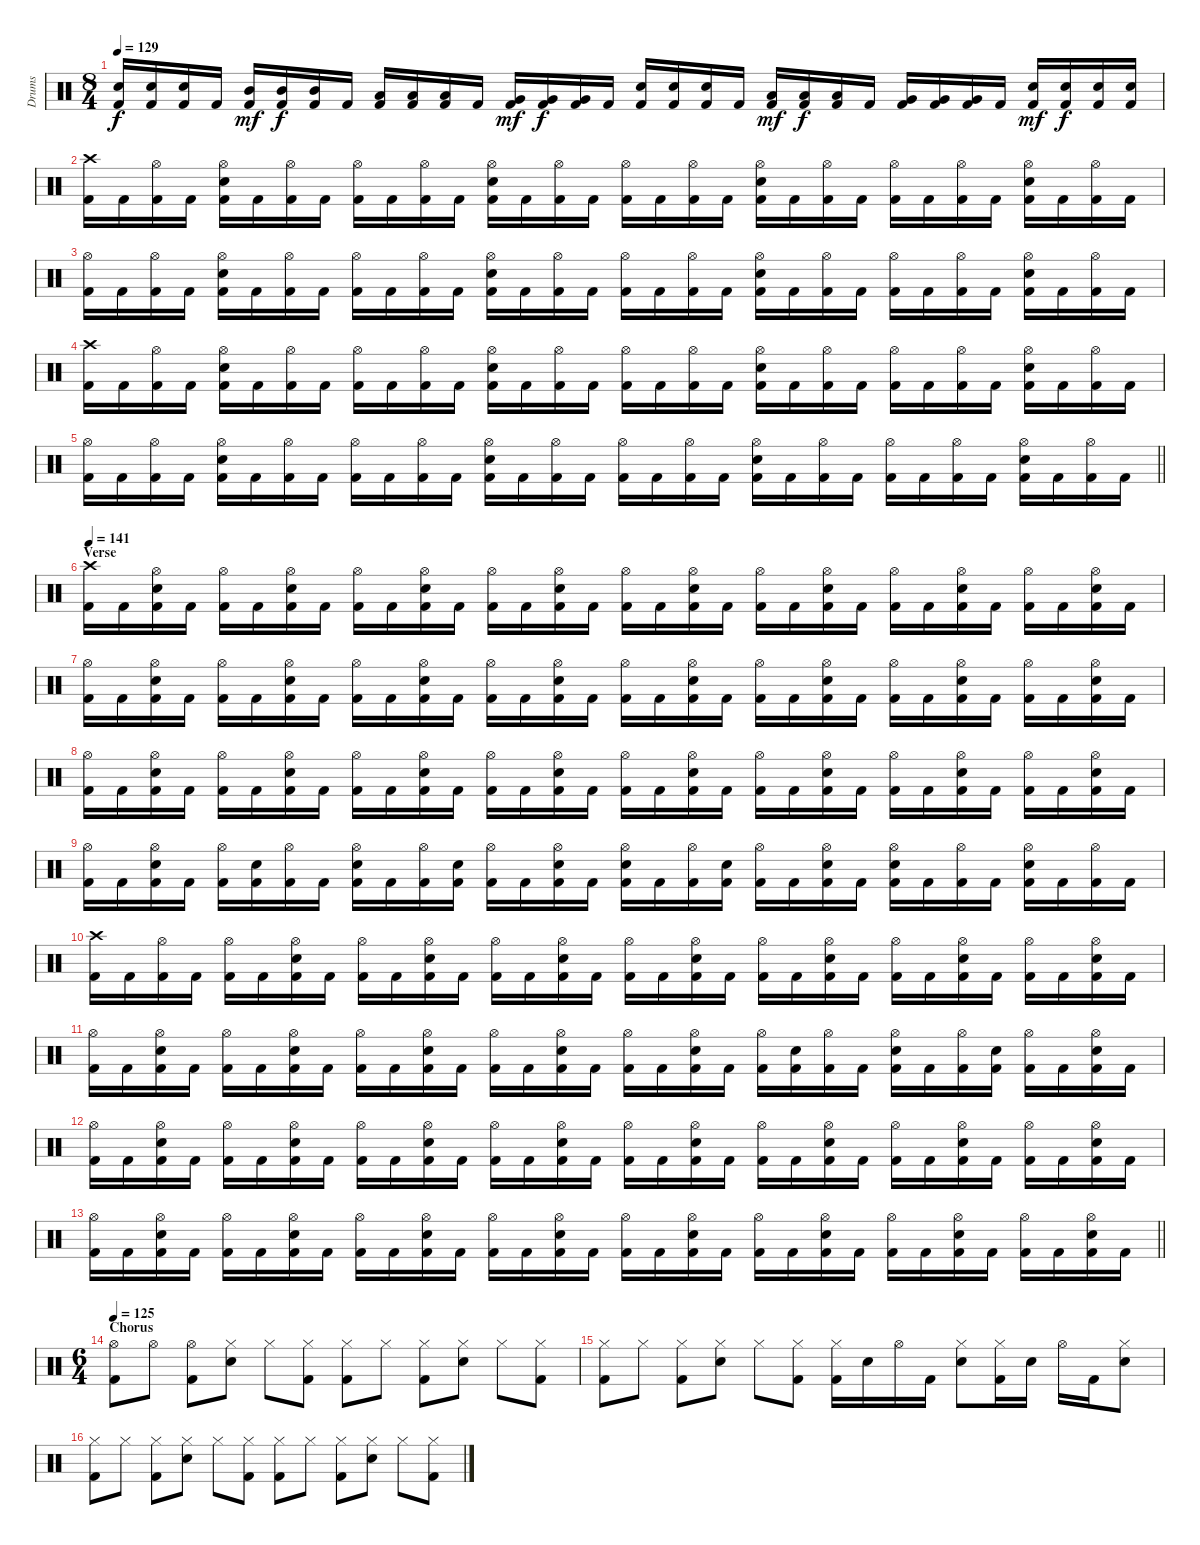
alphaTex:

\track ("Drums" "Drums") {instrument percussion}
\staff {score}
\articulation defaults
\ts (8 4)
\tempo 129
\clef neutral
\ks c
("Snare (hit) 2" "Kick (hit) 2").16{dy f} ("Snare (hit) 2" "Kick (hit) 2").16 ("Snare (hit) 2" "Kick (hit) 2").16 "Kick (hit) 2".16 ("Mid Tom (hit)" "Kick (hit) 2").16{dy mf} ("Mid Tom (hit)" "Kick (hit) 2").16{dy f} ("Mid Tom (hit)" "Kick (hit) 2").16 "Kick (hit) 2".16 ("Low Tom (hit)" "Kick (hit) 2").16 ("Low Tom (hit)" "Kick (hit) 2").16 ("Low Tom (hit)" "Kick (hit) 2").16 "Kick (hit) 2".16 ("Very Low Tom (hit)" "Kick (hit) 2").16{dy mf} ("Very Low Tom (hit)" "Kick (hit) 2").16{dy f} ("Very Low Tom (hit)" "Kick (hit) 2").16 "Kick (hit) 2".16 ("Snare (hit) 2" "Kick (hit) 2").16 ("Snare (hit) 2" "Kick (hit) 2").16 ("Snare (hit) 2" "Kick (hit) 2").16 "Kick (hit) 2".16 ("Low Tom (hit)" "Kick (hit) 2").16{dy mf} ("Low Tom (hit)" "Kick (hit) 2").16{dy f} ("Low Tom (hit)" "Kick (hit) 2").16 "Kick (hit) 2".16 ("Very Low Tom (hit)" "Kick (hit) 2").16 ("Very Low Tom (hit)" "Kick (hit) 2").16 ("Very Low Tom (hit)" "Kick (hit) 2").16 "Kick (hit) 2".16 ("Snare (hit) 2" "Kick (hit) 2").16{dy mf} ("Snare (hit) 2" "Kick (hit) 2").16{dy f} ("Snare (hit) 2" "Kick (hit) 2").16 ("Snare (hit) 2" "Kick (hit) 2").16 |
("Crash high (hit)" "Kick (hit) 2").16 "Kick (hit) 2".16 ("Hi-Hat (open)" "Kick (hit) 2").16 "Kick (hit) 2".16 ("Hi-Hat (open)" "Snare (hit) 2" "Kick (hit) 2").16 "Kick (hit) 2".16 ("Hi-Hat (open)" "Kick (hit) 2").16 "Kick (hit) 2".16 ("Hi-Hat (open)" "Kick (hit) 2").16 "Kick (hit) 2".16 ("Hi-Hat (open)" "Kick (hit) 2").16 "Kick (hit) 2".16 ("Hi-Hat (open)" "Snare (hit) 2" "Kick (hit) 2").16 "Kick (hit) 2".16 ("Hi-Hat (open)" "Kick (hit) 2").16 "Kick (hit) 2".16 ("Hi-Hat (open)" "Kick (hit) 2").16 "Kick (hit) 2".16 ("Hi-Hat (open)" "Kick (hit) 2").16 "Kick (hit) 2".16 ("Hi-Hat (open)" "Snare (hit) 2" "Kick (hit) 2").16 "Kick (hit) 2".16 ("Hi-Hat (open)" "Kick (hit) 2").16 "Kick (hit) 2".16 ("Hi-Hat (open)" "Kick (hit) 2").16 "Kick (hit) 2".16 ("Hi-Hat (open)" "Kick (hit) 2").16 "Kick (hit) 2".16 ("Hi-Hat (open)" "Snare (hit) 2" "Kick (hit) 2").16 "Kick (hit) 2".16 ("Hi-Hat (open)" "Kick (hit) 2").16 "Kick (hit) 2".16 |
("Hi-Hat (open)" "Kick (hit) 2").16 "Kick (hit) 2".16 ("Hi-Hat (open)" "Kick (hit) 2").16 "Kick (hit) 2".16 ("Hi-Hat (open)" "Snare (hit) 2" "Kick (hit) 2").16 "Kick (hit) 2".16 ("Hi-Hat (open)" "Kick (hit) 2").16 "Kick (hit) 2".16 ("Hi-Hat (open)" "Kick (hit) 2").16 "Kick (hit) 2".16 ("Hi-Hat (open)" "Kick (hit) 2").16 "Kick (hit) 2".16 ("Hi-Hat (open)" "Snare (hit) 2" "Kick (hit) 2").16 "Kick (hit) 2".16 ("Hi-Hat (open)" "Kick (hit) 2").16 "Kick (hit) 2".16 ("Hi-Hat (open)" "Kick (hit) 2").16 "Kick (hit) 2".16 ("Hi-Hat (open)" "Kick (hit) 2").16 "Kick (hit) 2".16 ("Hi-Hat (open)" "Snare (hit) 2" "Kick (hit) 2").16 "Kick (hit) 2".16 ("Hi-Hat (open)" "Kick (hit) 2").16 "Kick (hit) 2".16 ("Hi-Hat (open)" "Kick (hit) 2").16 "Kick (hit) 2".16 ("Hi-Hat (open)" "Kick (hit) 2").16 "Kick (hit) 2".16 ("Hi-Hat (open)" "Snare (hit) 2" "Kick (hit) 2").16 "Kick (hit) 2".16 ("Hi-Hat (open)" "Kick (hit) 2").16 "Kick (hit) 2".16 |
("Crash high (hit)" "Kick (hit) 2").16 "Kick (hit) 2".16 ("Hi-Hat (open)" "Kick (hit) 2").16 "Kick (hit) 2".16 ("Hi-Hat (open)" "Snare (hit) 2" "Kick (hit) 2").16 "Kick (hit) 2".16 ("Hi-Hat (open)" "Kick (hit) 2").16 "Kick (hit) 2".16 ("Hi-Hat (open)" "Kick (hit) 2").16 "Kick (hit) 2".16 ("Hi-Hat (open)" "Kick (hit) 2").16 "Kick (hit) 2".16 ("Hi-Hat (open)" "Snare (hit) 2" "Kick (hit) 2").16 "Kick (hit) 2".16 ("Hi-Hat (open)" "Kick (hit) 2").16 "Kick (hit) 2".16 ("Hi-Hat (open)" "Kick (hit) 2").16 "Kick (hit) 2".16 ("Hi-Hat (open)" "Kick (hit) 2").16 "Kick (hit) 2".16 ("Hi-Hat (open)" "Snare (hit) 2" "Kick (hit) 2").16 "Kick (hit) 2".16 ("Hi-Hat (open)" "Kick (hit) 2").16 "Kick (hit) 2".16 ("Hi-Hat (open)" "Kick (hit) 2").16 "Kick (hit) 2".16 ("Hi-Hat (open)" "Kick (hit) 2").16 "Kick (hit) 2".16 ("Hi-Hat (open)" "Snare (hit) 2" "Kick (hit) 2").16 "Kick (hit) 2".16 ("Hi-Hat (open)" "Kick (hit) 2").16 "Kick (hit) 2".16 |
\barLineRight lightlight
("Hi-Hat (open)" "Kick (hit) 2").16 "Kick (hit) 2".16 ("Hi-Hat (open)" "Kick (hit) 2").16 "Kick (hit) 2".16 ("Hi-Hat (open)" "Snare (hit) 2" "Kick (hit) 2").16 "Kick (hit) 2".16 ("Hi-Hat (open)" "Kick (hit) 2").16 "Kick (hit) 2".16 ("Hi-Hat (open)" "Kick (hit) 2").16 "Kick (hit) 2".16 ("Hi-Hat (open)" "Kick (hit) 2").16 "Kick (hit) 2".16 ("Hi-Hat (open)" "Snare (hit) 2" "Kick (hit) 2").16 "Kick (hit) 2".16 ("Hi-Hat (open)" "Kick (hit) 2").16 "Kick (hit) 2".16 ("Hi-Hat (open)" "Kick (hit) 2").16 "Kick (hit) 2".16 ("Hi-Hat (open)" "Kick (hit) 2").16 "Kick (hit) 2".16 ("Hi-Hat (open)" "Snare (hit) 2" "Kick (hit) 2").16 "Kick (hit) 2".16 ("Hi-Hat (open)" "Kick (hit) 2").16 "Kick (hit) 2".16 ("Hi-Hat (open)" "Kick (hit) 2").16 "Kick (hit) 2".16 ("Hi-Hat (open)" "Kick (hit) 2").16 "Kick (hit) 2".16 ("Hi-Hat (open)" "Snare (hit) 2" "Kick (hit) 2").16 "Kick (hit) 2".16 ("Hi-Hat (open)" "Kick (hit) 2").16 "Kick (hit) 2".16 |
\section ("" "Verse")
\tempo 141
("Crash high (hit)" "Kick (hit) 2").16 "Kick (hit) 2".16 ("Hi-Hat (open)" "Snare (hit) 2" "Kick (hit) 2").16 "Kick (hit) 2".16 ("Hi-Hat (open)" "Kick (hit) 2").16 "Kick (hit) 2".16 ("Hi-Hat (open)" "Snare (hit) 2" "Kick (hit) 2").16 "Kick (hit) 2".16 ("Hi-Hat (open)" "Kick (hit) 2").16 "Kick (hit) 2".16 ("Hi-Hat (open)" "Snare (hit) 2" "Kick (hit) 2").16 "Kick (hit) 2".16 ("Hi-Hat (open)" "Kick (hit) 2").16 "Kick (hit) 2".16 ("Hi-Hat (open)" "Snare (hit) 2" "Kick (hit) 2").16 "Kick (hit) 2".16 ("Hi-Hat (open)" "Kick (hit) 2").16 "Kick (hit) 2".16 ("Hi-Hat (open)" "Snare (hit) 2" "Kick (hit) 2").16 "Kick (hit) 2".16 ("Hi-Hat (open)" "Kick (hit) 2").16 "Kick (hit) 2".16 ("Hi-Hat (open)" "Snare (hit) 2" "Kick (hit) 2").16 "Kick (hit) 2".16 ("Hi-Hat (open)" "Kick (hit) 2").16 "Kick (hit) 2".16 ("Hi-Hat (open)" "Snare (hit) 2" "Kick (hit) 2").16 "Kick (hit) 2".16 ("Hi-Hat (open)" "Kick (hit) 2").16 "Kick (hit) 2".16 ("Hi-Hat (open)" "Snare (hit) 2" "Kick (hit) 2").16 "Kick (hit) 2".16 |
("Hi-Hat (open)" "Kick (hit) 2").16 "Kick (hit) 2".16 ("Hi-Hat (open)" "Snare (hit) 2" "Kick (hit) 2").16 "Kick (hit) 2".16 ("Hi-Hat (open)" "Kick (hit) 2").16 "Kick (hit) 2".16 ("Hi-Hat (open)" "Snare (hit) 2" "Kick (hit) 2").16 "Kick (hit) 2".16 ("Hi-Hat (open)" "Kick (hit) 2").16 "Kick (hit) 2".16 ("Hi-Hat (open)" "Snare (hit) 2" "Kick (hit) 2").16 "Kick (hit) 2".16 ("Hi-Hat (open)" "Kick (hit) 2").16 "Kick (hit) 2".16 ("Hi-Hat (open)" "Snare (hit) 2" "Kick (hit) 2").16 "Kick (hit) 2".16 ("Hi-Hat (open)" "Kick (hit) 2").16 "Kick (hit) 2".16 ("Hi-Hat (open)" "Snare (hit) 2" "Kick (hit) 2").16 "Kick (hit) 2".16 ("Hi-Hat (open)" "Kick (hit) 2").16 "Kick (hit) 2".16 ("Hi-Hat (open)" "Snare (hit) 2" "Kick (hit) 2").16 "Kick (hit) 2".16 ("Hi-Hat (open)" "Kick (hit) 2").16 "Kick (hit) 2".16 ("Hi-Hat (open)" "Snare (hit) 2" "Kick (hit) 2").16 "Kick (hit) 2".16 ("Hi-Hat (open)" "Kick (hit) 2").16 "Kick (hit) 2".16 ("Hi-Hat (open)" "Snare (hit) 2" "Kick (hit) 2").16 "Kick (hit) 2".16 |
("Hi-Hat (open)" "Kick (hit) 2").16 "Kick (hit) 2".16 ("Hi-Hat (open)" "Snare (hit) 2" "Kick (hit) 2").16 "Kick (hit) 2".16 ("Hi-Hat (open)" "Kick (hit) 2").16 "Kick (hit) 2".16 ("Hi-Hat (open)" "Snare (hit) 2" "Kick (hit) 2").16 "Kick (hit) 2".16 ("Hi-Hat (open)" "Kick (hit) 2").16 "Kick (hit) 2".16 ("Hi-Hat (open)" "Snare (hit) 2" "Kick (hit) 2").16 "Kick (hit) 2".16 ("Hi-Hat (open)" "Kick (hit) 2").16 "Kick (hit) 2".16 ("Hi-Hat (open)" "Snare (hit) 2" "Kick (hit) 2").16 "Kick (hit) 2".16 ("Hi-Hat (open)" "Kick (hit) 2").16 "Kick (hit) 2".16 ("Hi-Hat (open)" "Snare (hit) 2" "Kick (hit) 2").16 "Kick (hit) 2".16 ("Hi-Hat (open)" "Kick (hit) 2").16 "Kick (hit) 2".16 ("Hi-Hat (open)" "Snare (hit) 2" "Kick (hit) 2").16 "Kick (hit) 2".16 ("Hi-Hat (open)" "Kick (hit) 2").16 "Kick (hit) 2".16 ("Hi-Hat (open)" "Snare (hit) 2" "Kick (hit) 2").16 "Kick (hit) 2".16 ("Hi-Hat (open)" "Kick (hit) 2").16 "Kick (hit) 2".16 ("Hi-Hat (open)" "Snare (hit) 2" "Kick (hit) 2").16 "Kick (hit) 2".16 |
("Hi-Hat (open)" "Kick (hit) 2").16 "Kick (hit) 2".16 ("Hi-Hat (open)" "Snare (hit) 2" "Kick (hit) 2").16 "Kick (hit) 2".16 ("Hi-Hat (open)" "Kick (hit) 2").16 ("Snare (hit) 2" "Kick (hit) 2").16 ("Hi-Hat (open)" "Kick (hit) 2").16 "Kick (hit) 2".16 ("Hi-Hat (open)" "Snare (hit) 2" "Kick (hit) 2").16 "Kick (hit) 2".16 ("Hi-Hat (open)" "Kick (hit) 2").16 ("Snare (hit) 2" "Kick (hit) 2").16 ("Hi-Hat (open)" "Kick (hit) 2").16 "Kick (hit) 2".16 ("Hi-Hat (open)" "Snare (hit) 2" "Kick (hit) 2").16 "Kick (hit) 2".16 ("Hi-Hat (open)" "Snare (hit) 2" "Kick (hit) 2").16 "Kick (hit) 2".16 ("Hi-Hat (open)" "Kick (hit) 2").16 ("Snare (hit) 2" "Kick (hit) 2").16 ("Hi-Hat (open)" "Kick (hit) 2").16 "Kick (hit) 2".16 ("Hi-Hat (open)" "Snare (hit) 2" "Kick (hit) 2").16 "Kick (hit) 2".16 ("Hi-Hat (open)" "Snare (hit) 2" "Kick (hit) 2").16 "Kick (hit) 2".16 ("Hi-Hat (open)" "Kick (hit) 2").16 "Kick (hit) 2".16 ("Hi-Hat (open)" "Snare (hit) 2" "Kick (hit) 2").16 "Kick (hit) 2".16 ("Hi-Hat (open)" "Kick (hit) 2").16 "Kick (hit) 2".16 |
("Crash high (hit)" "Kick (hit) 2").16 "Kick (hit) 2".16 ("Hi-Hat (open)" "Kick (hit) 2").16 "Kick (hit) 2".16 ("Hi-Hat (open)" "Kick (hit) 2").16 "Kick (hit) 2".16 ("Hi-Hat (open)" "Snare (hit) 2" "Kick (hit) 2").16 "Kick (hit) 2".16 ("Hi-Hat (open)" "Kick (hit) 2").16 "Kick (hit) 2".16 ("Hi-Hat (open)" "Snare (hit) 2" "Kick (hit) 2").16 "Kick (hit) 2".16 ("Hi-Hat (open)" "Kick (hit) 2").16 "Kick (hit) 2".16 ("Hi-Hat (open)" "Snare (hit) 2" "Kick (hit) 2").16 "Kick (hit) 2".16 ("Hi-Hat (open)" "Kick (hit) 2").16 "Kick (hit) 2".16 ("Hi-Hat (open)" "Snare (hit) 2" "Kick (hit) 2").16 "Kick (hit) 2".16 ("Hi-Hat (open)" "Kick (hit) 2").16 "Kick (hit) 2".16 ("Hi-Hat (open)" "Snare (hit) 2" "Kick (hit) 2").16 "Kick (hit) 2".16 ("Hi-Hat (open)" "Kick (hit) 2").16 "Kick (hit) 2".16 ("Hi-Hat (open)" "Snare (hit) 2" "Kick (hit) 2").16 "Kick (hit) 2".16 ("Hi-Hat (open)" "Kick (hit) 2").16 "Kick (hit) 2".16 ("Hi-Hat (open)" "Snare (hit) 2" "Kick (hit) 2").16 "Kick (hit) 2".16 |
("Hi-Hat (open)" "Kick (hit) 2").16 "Kick (hit) 2".16 ("Hi-Hat (open)" "Snare (hit) 2" "Kick (hit) 2").16 "Kick (hit) 2".16 ("Hi-Hat (open)" "Kick (hit) 2").16 "Kick (hit) 2".16 ("Hi-Hat (open)" "Snare (hit) 2" "Kick (hit) 2").16 "Kick (hit) 2".16 ("Hi-Hat (open)" "Kick (hit) 2").16 "Kick (hit) 2".16 ("Hi-Hat (open)" "Snare (hit) 2" "Kick (hit) 2").16 "Kick (hit) 2".16 ("Hi-Hat (open)" "Kick (hit) 2").16 "Kick (hit) 2".16 ("Hi-Hat (open)" "Snare (hit) 2" "Kick (hit) 2").16 "Kick (hit) 2".16 ("Hi-Hat (open)" "Kick (hit) 2").16 "Kick (hit) 2".16 ("Hi-Hat (open)" "Snare (hit) 2" "Kick (hit) 2").16 "Kick (hit) 2".16 ("Hi-Hat (open)" "Kick (hit) 2").16 ("Snare (hit) 2" "Kick (hit) 2").16 ("Hi-Hat (open)" "Kick (hit) 2").16 "Kick (hit) 2".16 ("Hi-Hat (open)" "Snare (hit) 2" "Kick (hit) 2").16 "Kick (hit) 2".16 ("Hi-Hat (open)" "Kick (hit) 2").16 ("Snare (hit) 2" "Kick (hit) 2").16 ("Hi-Hat (open)" "Kick (hit) 2").16 "Kick (hit) 2".16 ("Hi-Hat (open)" "Snare (hit) 2" "Kick (hit) 2").16 "Kick (hit) 2".16 |
("Hi-Hat (open)" "Kick (hit) 2").16 "Kick (hit) 2".16 ("Hi-Hat (open)" "Snare (hit) 2" "Kick (hit) 2").16 "Kick (hit) 2".16 ("Hi-Hat (open)" "Kick (hit) 2").16 "Kick (hit) 2".16 ("Hi-Hat (open)" "Snare (hit) 2" "Kick (hit) 2").16 "Kick (hit) 2".16 ("Hi-Hat (open)" "Kick (hit) 2").16 "Kick (hit) 2".16 ("Hi-Hat (open)" "Snare (hit) 2" "Kick (hit) 2").16 "Kick (hit) 2".16 ("Hi-Hat (open)" "Kick (hit) 2").16 "Kick (hit) 2".16 ("Hi-Hat (open)" "Snare (hit) 2" "Kick (hit) 2").16 "Kick (hit) 2".16 ("Hi-Hat (open)" "Kick (hit) 2").16 "Kick (hit) 2".16 ("Hi-Hat (open)" "Snare (hit) 2" "Kick (hit) 2").16 "Kick (hit) 2".16 ("Hi-Hat (open)" "Kick (hit) 2").16 "Kick (hit) 2".16 ("Hi-Hat (open)" "Snare (hit) 2" "Kick (hit) 2").16 "Kick (hit) 2".16 ("Hi-Hat (open)" "Kick (hit) 2").16 "Kick (hit) 2".16 ("Hi-Hat (open)" "Snare (hit) 2" "Kick (hit) 2").16 "Kick (hit) 2".16 ("Hi-Hat (open)" "Kick (hit) 2").16 "Kick (hit) 2".16 ("Hi-Hat (open)" "Snare (hit) 2" "Kick (hit) 2").16 "Kick (hit) 2".16 |
\barLineRight lightlight
("Hi-Hat (open)" "Kick (hit) 2").16 "Kick (hit) 2".16 ("Hi-Hat (open)" "Snare (hit) 2" "Kick (hit) 2").16 "Kick (hit) 2".16 ("Hi-Hat (open)" "Kick (hit) 2").16 "Kick (hit) 2".16 ("Hi-Hat (open)" "Snare (hit) 2" "Kick (hit) 2").16 "Kick (hit) 2".16 ("Hi-Hat (open)" "Kick (hit) 2").16 "Kick (hit) 2".16 ("Hi-Hat (open)" "Snare (hit) 2" "Kick (hit) 2").16 "Kick (hit) 2".16 ("Hi-Hat (open)" "Kick (hit) 2").16 "Kick (hit) 2".16 ("Hi-Hat (open)" "Snare (hit) 2" "Kick (hit) 2").16 "Kick (hit) 2".16 ("Hi-Hat (open)" "Kick (hit) 2").16 "Kick (hit) 2".16 ("Hi-Hat (open)" "Snare (hit) 2" "Kick (hit) 2").16 "Kick (hit) 2".16 ("Hi-Hat (open)" "Kick (hit) 2").16 "Kick (hit) 2".16 ("Hi-Hat (open)" "Snare (hit) 2" "Kick (hit) 2").16 "Kick (hit) 2".16 ("Hi-Hat (open)" "Kick (hit) 2").16 "Kick (hit) 2".16 ("Hi-Hat (open)" "Snare (hit) 2" "Kick (hit) 2").16 "Kick (hit) 2".16 ("Hi-Hat (open)" "Kick (hit) 2").16 "Kick (hit) 2".16 ("Hi-Hat (open)" "Snare (hit) 2" "Kick (hit) 2").16 "Kick (hit) 2".16 |
\ts (6 4)
\section ("" "Chorus")
\tempo 125
("Hi-Hat (open)" "Kick (hit) 2").8 "Hi-Hat (open)".8 ("Hi-Hat (open)" "Kick (hit) 2").8 ("Hi-Hat (closed)" "Snare (hit) 2").8 "Hi-Hat (closed)".8 ("Hi-Hat (closed)" "Kick (hit) 2").8 ("Hi-Hat (closed)" "Kick (hit) 2").8 "Hi-Hat (closed)".8 ("Hi-Hat (closed)" "Kick (hit) 2").8 ("Hi-Hat (closed)" "Snare (hit) 2").8 "Hi-Hat (closed)".8 ("Hi-Hat (closed)" "Kick (hit) 2").8 |
("Hi-Hat (closed)" "Kick (hit) 2").8 "Hi-Hat (closed)".8 ("Hi-Hat (closed)" "Kick (hit) 2").8 ("Hi-Hat (closed)" "Snare (hit) 2").8 "Hi-Hat (closed)".8 ("Hi-Hat (closed)" "Kick (hit) 2").8 ("Hi-Hat (closed)" "Kick (hit) 2").16 "Snare (hit) 2".16 "Hi-Hat (open)".16 "Kick (hit) 2".16 ("Hi-Hat (closed)" "Snare (hit) 2").8 ("Hi-Hat (closed)" "Kick (hit) 2").16 "Snare (hit) 2".16 "Hi-Hat (open)".16 "Kick (hit) 2".16 ("Hi-Hat (closed)" "Snare (hit) 2").8 |
("Hi-Hat (closed)" "Kick (hit) 2").8 "Hi-Hat (closed)".8 ("Hi-Hat (closed)" "Kick (hit) 2").8 ("Hi-Hat (closed)" "Snare (hit) 2").8 "Hi-Hat (closed)".8 ("Hi-Hat (closed)" "Kick (hit) 2").8 ("Hi-Hat (closed)" "Kick (hit) 2").8 "Hi-Hat (closed)".8 ("Hi-Hat (closed)" "Kick (hit) 2").8 ("Hi-Hat (closed)" "Snare (hit) 2").8 "Hi-Hat (closed)".8 ("Hi-Hat (closed)" "Kick (hit) 2").8
